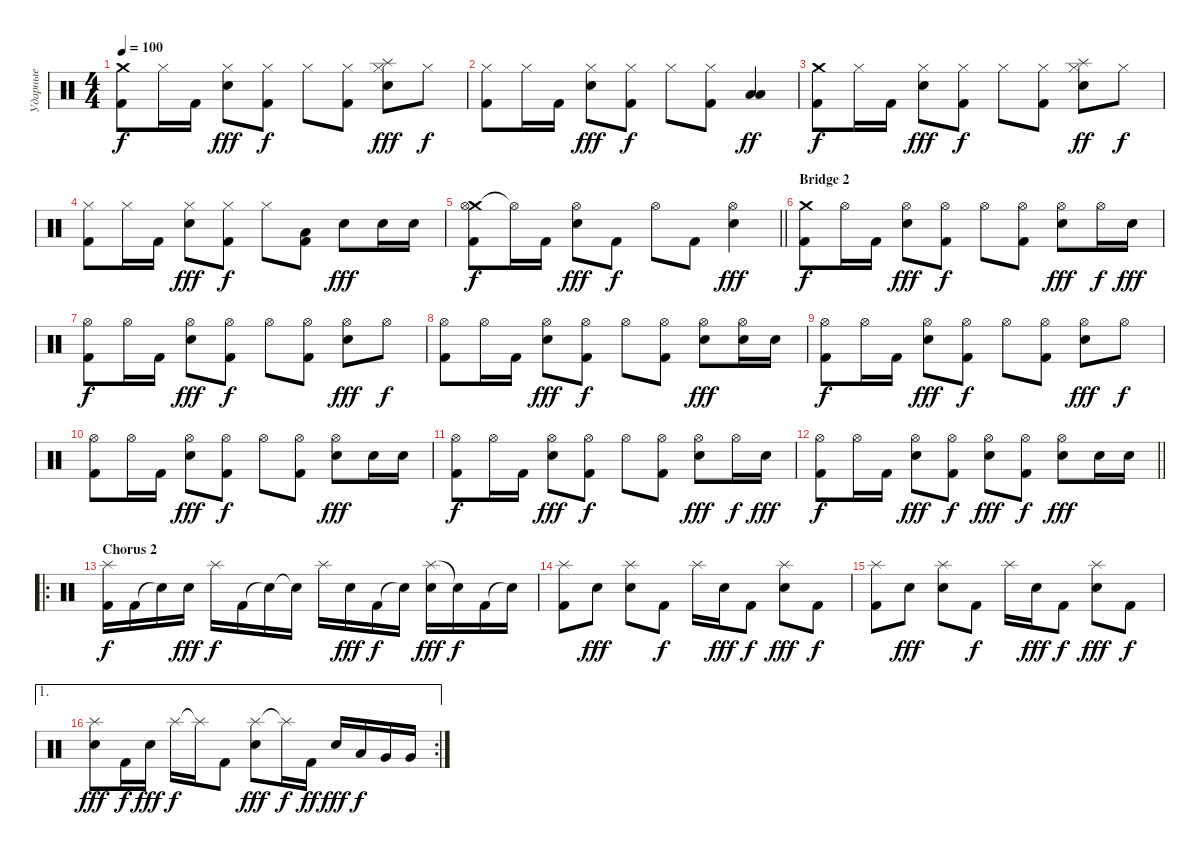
\track ("Ударные" "Ударные") {instrument percussion}
\staff {score}
\articulation defaults
\ts (4 4)
\tempo 100
\clef neutral
\ks c
("Crash medium (hit)" "Kick (hit) 2").8{dy f} "Hi-Hat (closed)".16 "Kick (hit) 2".16 ("Hi-Hat (closed)" "Electric Snare (hit)").8{dy fff} ("Hi-Hat (closed)" "Kick (hit) 2").8{dy f} "Hi-Hat (closed)".8 ("Hi-Hat (closed)" "Kick (hit) 2").8 ("Splash (hit)" "Hi-Hat (closed)" "Electric Snare (hit)").8{dy fff} "Hi-Hat (closed)".8{dy f} |
("Hi-Hat (closed)" "Kick (hit) 2").8 "Hi-Hat (closed)".16 "Kick (hit) 2".16 ("Hi-Hat (closed)" "Electric Snare (hit)").8{dy fff} ("Hi-Hat (closed)" "Kick (hit) 2").8{dy f} "Hi-Hat (closed)".8 ("Hi-Hat (closed)" "Kick (hit) 2").8 ("Low Floor Tom (hit)" "Low Floor Tom (hit)").4{dy ff} |
("Crash medium (hit)" "Kick (hit) 2").8{dy f} "Hi-Hat (closed)".16 "Kick (hit) 2".16 ("Hi-Hat (closed)" "Electric Snare (hit)").8{dy fff} ("Hi-Hat (closed)" "Kick (hit) 2").8{dy f} "Hi-Hat (closed)".8 ("Hi-Hat (closed)" "Kick (hit) 2").8 ("Splash (hit)" "Hi-Hat (closed)" "Electric Snare (hit)").8{dy ff} "Hi-Hat (closed)".8{dy f} |
("Hi-Hat (closed)" "Kick (hit) 2").8 "Hi-Hat (closed)".16 "Kick (hit) 2".16 ("Hi-Hat (closed)" "Electric Snare (hit)").8{dy fff} ("Hi-Hat (closed)" "Kick (hit) 2").8{dy f} "Hi-Hat (closed)".8 ("Low Floor Tom (hit)" "Kick (hit) 2").8 "Electric Snare (hit)".8{dy fff} "Electric Snare (hit)".16 "Electric Snare (hit)".16 |
\barLineRight lightlight
("Crash medium (hit)" "Hi-Hat (open)" "Kick (hit) 2").8{dy f} "Hi-Hat (open)"{t}.16 "Kick (hit) 2".16 ("Hi-Hat (open)" "Electric Snare (hit)").8{dy fff} "Kick (hit) 2".8{dy f} "Hi-Hat (open)".8 "Kick (hit) 2".8 ("Hi-Hat (open)" "Electric Snare (hit)").4{dy fff} |
\section ("" "Bridge 2")
("Crash medium (hit)" "Kick (hit) 2").8{dy f} "Hi-Hat (open)".16 "Kick (hit) 2".16 ("Hi-Hat (open)" "Electric Snare (hit)").8{dy fff} ("Hi-Hat (open)" "Kick (hit) 2").8{dy f} "Hi-Hat (open)".8 ("Hi-Hat (open)" "Kick (hit) 2").8 ("Hi-Hat (open)" "Electric Snare (hit)").8{dy fff} "Hi-Hat (open)".16{dy f} "Electric Snare (hit)".16{dy fff} |
("Hi-Hat (open)" "Kick (hit) 2").8{dy f} "Hi-Hat (open)".16 "Kick (hit) 2".16 ("Hi-Hat (open)" "Electric Snare (hit)").8{dy fff} ("Hi-Hat (open)" "Kick (hit) 2").8{dy f} "Hi-Hat (open)".8 ("Hi-Hat (open)" "Kick (hit) 2").8 ("Hi-Hat (open)" "Electric Snare (hit)").8{dy fff} "Hi-Hat (open)".8{dy f} |
("Hi-Hat (open)" "Kick (hit) 2").8 "Hi-Hat (open)".16 "Kick (hit) 2".16 ("Hi-Hat (open)" "Electric Snare (hit)").8{dy fff} ("Hi-Hat (open)" "Kick (hit) 2").8{dy f} "Hi-Hat (open)".8 ("Hi-Hat (open)" "Kick (hit) 2").8 ("Hi-Hat (open)" "Electric Snare (hit)").8{dy fff} ("Hi-Hat (open)" "Electric Snare (hit)").16 "Electric Snare (hit)".16 |
("Hi-Hat (open)" "Kick (hit) 2").8{dy f} "Hi-Hat (open)".16 "Kick (hit) 2".16 ("Hi-Hat (open)" "Electric Snare (hit)").8{dy fff} ("Hi-Hat (open)" "Kick (hit) 2").8{dy f} "Hi-Hat (open)".8 ("Hi-Hat (open)" "Kick (hit) 2").8 ("Hi-Hat (open)" "Electric Snare (hit)").8{dy fff} "Hi-Hat (open)".8{dy f} |
("Hi-Hat (open)" "Kick (hit) 2").8 "Hi-Hat (open)".16 "Kick (hit) 2".16 ("Hi-Hat (open)" "Electric Snare (hit)").8{dy fff} ("Hi-Hat (open)" "Kick (hit) 2").8{dy f} "Hi-Hat (open)".8 ("Hi-Hat (open)" "Kick (hit) 2").8 ("Hi-Hat (open)" "Electric Snare (hit)").8{dy fff} "Electric Snare (hit)".16 "Electric Snare (hit)".16 |
("Hi-Hat (open)" "Kick (hit) 2").8{dy f} "Hi-Hat (open)".16 "Kick (hit) 2".16 ("Hi-Hat (open)" "Electric Snare (hit)").8{dy fff} ("Hi-Hat (open)" "Kick (hit) 2").8{dy f} "Hi-Hat (open)".8 ("Hi-Hat (open)" "Kick (hit) 2").8 ("Hi-Hat (open)" "Electric Snare (hit)").8{dy fff} "Hi-Hat (open)".16{dy f} "Electric Snare (hit)".16{dy fff} |
\barLineRight lightlight
("Hi-Hat (open)" "Kick (hit) 2").8{dy f} "Hi-Hat (open)".16 "Kick (hit) 2".16 ("Hi-Hat (open)" "Electric Snare (hit)").8{dy fff} ("Hi-Hat (open)" "Kick (hit) 2").8{dy f} ("Hi-Hat (open)" "Electric Snare (hit)").8{dy fff} ("Hi-Hat (open)" "Kick (hit) 2").8{dy f} ("Hi-Hat (open)" "Electric Snare (hit)").8{dy fff} "Electric Snare (hit)".16 "Electric Snare (hit)".16 |
\ro
\section ("" "Chorus 2")
("Splash (hit)" "Kick (hit) 2").16{dy f} "Kick (hit) 2".16 "Snare (hit)"{t}.16 "Electric Snare (hit)".16{dy fff} "Splash (hit)".16{dy f} "Kick (hit) 2".16 "Snare (hit)"{t}.16 "Snare (hit)"{t}.16 "Splash (hit)".16 "Electric Snare (hit)".16{dy fff} "Kick (hit) 2".16{dy f} "Snare (hit)"{t}.16 ("Splash (hit)" "Electric Snare (hit)").16{dy fff} "Snare (hit)"{t}.16{dy f} "Kick (hit) 2".16 "Snare (hit)"{t}.16 |
("Splash (hit)" "Kick (hit) 2").8 "Electric Snare (hit)".8{dy fff} ("Splash (hit)" "Electric Snare (hit)").8 "Kick (hit) 2".8{dy f} "Splash (hit)".16 "Electric Snare (hit)".16{dy fff} "Kick (hit) 2".8{dy f} ("Splash (hit)" "Electric Snare (hit)").8{dy fff} "Kick (hit) 2".8{dy f} |
("Splash (hit)" "Kick (hit) 2").8 "Electric Snare (hit)".8{dy fff} ("Splash (hit)" "Electric Snare (hit)").8 "Kick (hit) 2".8{dy f} "Splash (hit)".16 "Electric Snare (hit)".16{dy fff} "Kick (hit) 2".8{dy f} ("Splash (hit)" "Electric Snare (hit)").8{dy fff} "Kick (hit) 2".8{dy f} |
\ae 1
\rc 2
("Splash (hit)" "Electric Snare (hit)").8{dy fff} "Kick (hit) 2".16{dy f} "Electric Snare (hit)".16{dy fff} "Splash (hit)".16{dy f} "Splash (hit)"{t}.16 "Kick (hit) 2".8 ("Splash (hit)" "Electric Snare (hit)").8{dy fff} "Splash (hit)"{t}.16{dy f} "Kick (hit) 2".16{dy ff} "Electric Snare (hit)".16{dy fff} "Low Floor Tom (hit)".16{dy f} "Very Low Tom (hit)".16 "Very Low Tom (hit)".16
